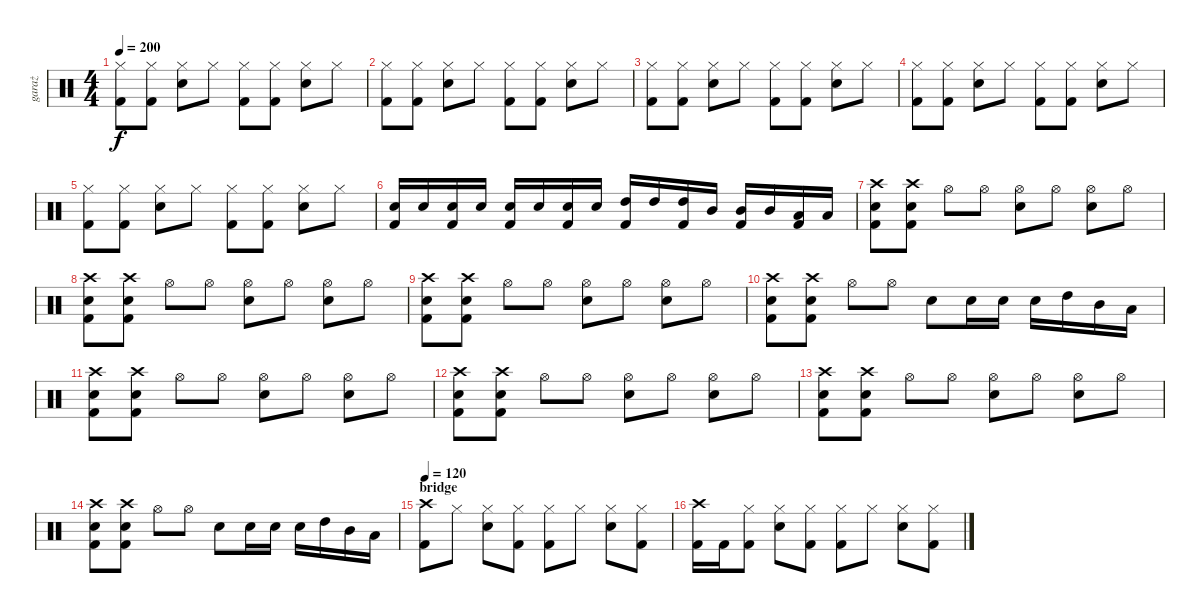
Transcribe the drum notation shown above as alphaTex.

\track ("garaż" "garaż") {instrument percussion}
\staff {score}
\articulation defaults
\ts (4 4)
\tempo 200
\clef neutral
\ks c
("Hi-Hat (closed)" "Kick (hit) 2").8{dy f} ("Hi-Hat (closed)" "Kick (hit) 2").8 ("Hi-Hat (closed)" "Snare (hit) 2").8 "Hi-Hat (closed)".8 ("Hi-Hat (closed)" "Kick (hit) 2").8 ("Hi-Hat (closed)" "Kick (hit) 2").8 ("Hi-Hat (closed)" "Snare (hit) 2").8 "Hi-Hat (closed)".8 |
("Hi-Hat (closed)" "Kick (hit) 2").8 ("Hi-Hat (closed)" "Kick (hit) 2").8 ("Hi-Hat (closed)" "Snare (hit) 2").8 "Hi-Hat (closed)".8 ("Hi-Hat (closed)" "Kick (hit) 2").8 ("Hi-Hat (closed)" "Kick (hit) 2").8 ("Hi-Hat (closed)" "Snare (hit) 2").8 "Hi-Hat (closed)".8 |
("Hi-Hat (closed)" "Kick (hit) 2").8 ("Hi-Hat (closed)" "Kick (hit) 2").8 ("Hi-Hat (closed)" "Snare (hit) 2").8 "Hi-Hat (closed)".8 ("Hi-Hat (closed)" "Kick (hit) 2").8 ("Hi-Hat (closed)" "Kick (hit) 2").8 ("Hi-Hat (closed)" "Snare (hit) 2").8 "Hi-Hat (closed)".8 |
("Hi-Hat (closed)" "Kick (hit) 2").8 ("Hi-Hat (closed)" "Kick (hit) 2").8 ("Hi-Hat (closed)" "Snare (hit) 2").8 "Hi-Hat (closed)".8 ("Hi-Hat (closed)" "Kick (hit) 2").8 ("Hi-Hat (closed)" "Kick (hit) 2").8 ("Hi-Hat (closed)" "Snare (hit) 2").8 "Hi-Hat (closed)".8 |
("Hi-Hat (closed)" "Kick (hit) 2").8 ("Hi-Hat (closed)" "Kick (hit) 2").8 ("Hi-Hat (closed)" "Snare (hit) 2").8 "Hi-Hat (closed)".8 ("Hi-Hat (closed)" "Kick (hit) 2").8 ("Hi-Hat (closed)" "Kick (hit) 2").8 ("Hi-Hat (closed)" "Snare (hit) 2").8 "Hi-Hat (closed)".8 |
("Snare (hit) 2" "Kick (hit) 2").16 "Snare (hit) 2".16 ("Snare (hit) 2" "Kick (hit) 2").16 "Snare (hit) 2".16 ("Snare (hit) 2" "Kick (hit) 2").16 "Snare (hit) 2".16 ("Snare (hit) 2" "Kick (hit) 2").16 "Snare (hit) 2".16 ("High Tom (hit)" "Kick (hit) 2").16 "High Tom (hit)".16 ("High Tom (hit)" "Kick (hit) 2").16 "Mid Tom (hit)".16 ("Mid Tom (hit)" "Kick (hit) 2").16 "Mid Tom (hit)".16 ("Low Tom (hit)" "Kick (hit) 2").16 "Low Tom (hit)".16 |
("Crash high (hit)" "Snare (hit) 2" "Kick (hit) 2").8 ("Crash high (hit)" "Snare (hit) 2" "Kick (hit) 2").8 "Hi-Hat (open)".8 "Hi-Hat (open)".8 ("Hi-Hat (open)" "Snare (hit) 2").8 "Hi-Hat (open)".8 ("Hi-Hat (open)" "Snare (hit) 2").8 "Hi-Hat (open)".8 |
("Crash high (hit)" "Snare (hit) 2" "Kick (hit) 2").8 ("Crash high (hit)" "Snare (hit) 2" "Kick (hit) 2").8 "Hi-Hat (open)".8 "Hi-Hat (open)".8 ("Hi-Hat (open)" "Snare (hit) 2").8 "Hi-Hat (open)".8 ("Hi-Hat (open)" "Snare (hit) 2").8 "Hi-Hat (open)".8 |
("Crash high (hit)" "Snare (hit) 2" "Kick (hit) 2").8 ("Crash high (hit)" "Snare (hit) 2" "Kick (hit) 2").8 "Hi-Hat (open)".8 "Hi-Hat (open)".8 ("Hi-Hat (open)" "Snare (hit) 2").8 "Hi-Hat (open)".8 ("Hi-Hat (open)" "Snare (hit) 2").8 "Hi-Hat (open)".8 |
("Crash high (hit)" "Snare (hit) 2" "Kick (hit) 2").8 ("Crash high (hit)" "Snare (hit) 2" "Kick (hit) 2").8 "Hi-Hat (open)".8 "Hi-Hat (open)".8 "Snare (hit) 2".8 "Snare (hit) 2".16 "Snare (hit) 2".16 "Snare (hit) 2".16 "High Tom (hit)".16 "Mid Tom (hit)".16 "Low Tom (hit)".16 |
("Crash high (hit)" "Snare (hit) 2" "Kick (hit) 2").8 ("Crash high (hit)" "Snare (hit) 2" "Kick (hit) 2").8 "Hi-Hat (open)".8 "Hi-Hat (open)".8 ("Hi-Hat (open)" "Snare (hit) 2").8 "Hi-Hat (open)".8 ("Hi-Hat (open)" "Snare (hit) 2").8 "Hi-Hat (open)".8 |
("Crash high (hit)" "Snare (hit) 2" "Kick (hit) 2").8 ("Crash high (hit)" "Snare (hit) 2" "Kick (hit) 2").8 "Hi-Hat (open)".8 "Hi-Hat (open)".8 ("Hi-Hat (open)" "Snare (hit) 2").8 "Hi-Hat (open)".8 ("Hi-Hat (open)" "Snare (hit) 2").8 "Hi-Hat (open)".8 |
("Crash high (hit)" "Snare (hit) 2" "Kick (hit) 2").8 ("Crash high (hit)" "Snare (hit) 2" "Kick (hit) 2").8 "Hi-Hat (open)".8 "Hi-Hat (open)".8 ("Hi-Hat (open)" "Snare (hit) 2").8 "Hi-Hat (open)".8 ("Hi-Hat (open)" "Snare (hit) 2").8 "Hi-Hat (open)".8 |
("Crash high (hit)" "Snare (hit) 2" "Kick (hit) 2").8 ("Crash high (hit)" "Snare (hit) 2" "Kick (hit) 2").8 "Hi-Hat (open)".8 "Hi-Hat (open)".8 "Snare (hit) 2".8 "Snare (hit) 2".16 "Snare (hit) 2".16 "Snare (hit) 2".16 "High Tom (hit)".16 "Mid Tom (hit)".16 "Low Tom (hit)".16 |
\section ("" "bridge")
\tempo 120
("Crash high (hit)" "Kick (hit) 2").8{volume 13} "Hi-Hat (closed)".8 ("Hi-Hat (closed)" "Snare (hit) 2").8 ("Hi-Hat (closed)" "Kick (hit) 2").8 ("Hi-Hat (closed)" "Kick (hit) 2").8 "Hi-Hat (closed)".8 ("Hi-Hat (closed)" "Snare (hit) 2").8 ("Hi-Hat (closed)" "Kick (hit) 2").8 |
("Crash high (hit)" "Kick (hit) 2").16 "Kick (hit) 2".16 ("Hi-Hat (closed)" "Kick (hit) 2").8 ("Hi-Hat (closed)" "Snare (hit) 2").8 ("Hi-Hat (closed)" "Kick (hit) 2").8 ("Hi-Hat (closed)" "Kick (hit) 2").8 "Hi-Hat (closed)".8 ("Hi-Hat (closed)" "Snare (hit) 2").8 ("Hi-Hat (closed)" "Kick (hit) 2").8
